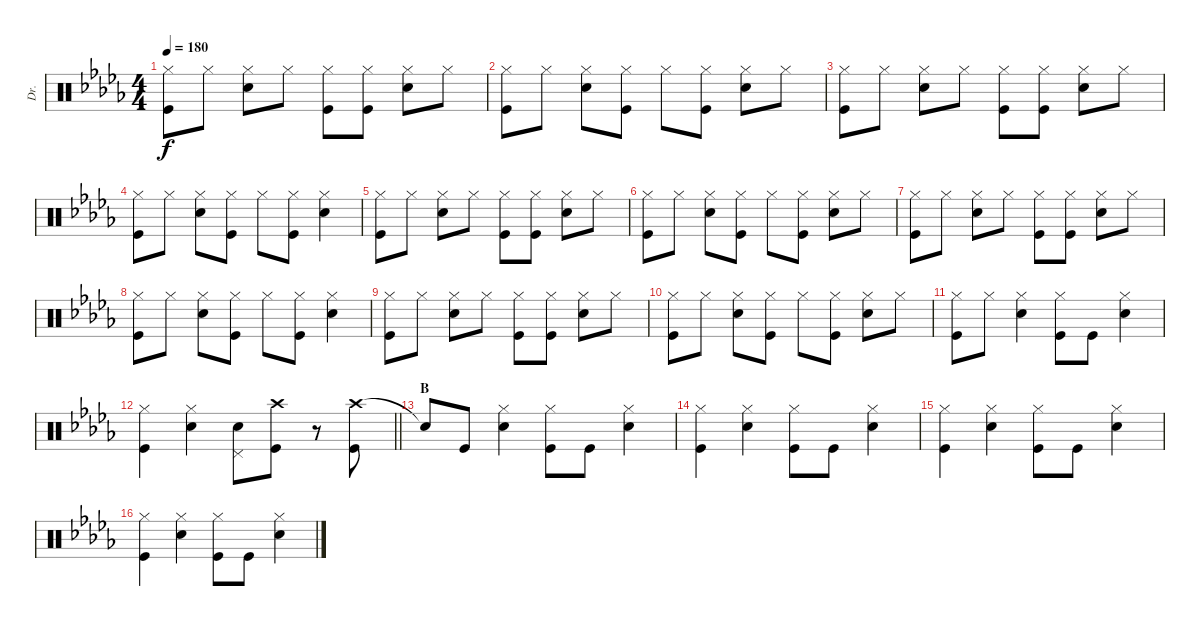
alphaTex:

\track ("Dr." "Dr.") {instrument percussion}
\staff {score}
\articulation defaults
\ts (4 4)
\tempo 180
\clef neutral
\ks db
("Hi-Hat (closed)" "Kick (hit)").8{dy f} "Hi-Hat (closed)".8 ("Hi-Hat (closed)" "Snare (hit) 2").8 "Hi-Hat (closed)".8 ("Hi-Hat (closed)" "Kick (hit)").8 ("Hi-Hat (closed)" "Kick (hit)").8 ("Hi-Hat (closed)" "Snare (hit) 2").8 "Hi-Hat (closed)".8 |
("Hi-Hat (closed)" "Kick (hit)").8 "Hi-Hat (closed)".8 ("Hi-Hat (closed)" "Snare (hit) 2").8 ("Hi-Hat (closed)" "Kick (hit)").8 "Hi-Hat (closed)".8 ("Hi-Hat (closed)" "Kick (hit)").8 ("Hi-Hat (closed)" "Snare (hit) 2").8 "Hi-Hat (closed)".8 |
("Hi-Hat (closed)" "Kick (hit)").8 "Hi-Hat (closed)".8 ("Hi-Hat (closed)" "Snare (hit) 2").8 "Hi-Hat (closed)".8 ("Hi-Hat (closed)" "Kick (hit)").8 ("Hi-Hat (closed)" "Kick (hit)").8 ("Hi-Hat (closed)" "Snare (hit) 2").8 "Hi-Hat (closed)".8 |
("Hi-Hat (closed)" "Kick (hit)").8 "Hi-Hat (closed)".8 ("Hi-Hat (closed)" "Snare (hit) 2").8 ("Hi-Hat (closed)" "Kick (hit)").8 "Hi-Hat (closed)".8 ("Hi-Hat (closed)" "Kick (hit)").8 ("Hi-Hat (closed)" "Snare (hit) 2").4 |
("Hi-Hat (closed)" "Kick (hit)").8 "Hi-Hat (closed)".8 ("Hi-Hat (closed)" "Snare (hit) 2").8 "Hi-Hat (closed)".8 ("Hi-Hat (closed)" "Kick (hit)").8 ("Hi-Hat (closed)" "Kick (hit)").8 ("Hi-Hat (closed)" "Snare (hit) 2").8 "Hi-Hat (closed)".8 |
("Hi-Hat (closed)" "Kick (hit)").8 "Hi-Hat (closed)".8 ("Hi-Hat (closed)" "Snare (hit) 2").8 ("Hi-Hat (closed)" "Kick (hit)").8 "Hi-Hat (closed)".8 ("Hi-Hat (closed)" "Kick (hit)").8 ("Hi-Hat (closed)" "Snare (hit) 2").8 "Hi-Hat (closed)".8 |
("Hi-Hat (closed)" "Kick (hit)").8 "Hi-Hat (closed)".8 ("Hi-Hat (closed)" "Snare (hit) 2").8 "Hi-Hat (closed)".8 ("Hi-Hat (closed)" "Kick (hit)").8 ("Hi-Hat (closed)" "Kick (hit)").8 ("Hi-Hat (closed)" "Snare (hit) 2").8 "Hi-Hat (closed)".8 |
("Hi-Hat (closed)" "Kick (hit)").8 "Hi-Hat (closed)".8 ("Hi-Hat (closed)" "Snare (hit) 2").8 ("Hi-Hat (closed)" "Kick (hit)").8 "Hi-Hat (closed)".8 ("Hi-Hat (closed)" "Kick (hit)").8 ("Hi-Hat (closed)" "Snare (hit) 2").4 |
("Hi-Hat (closed)" "Kick (hit)").8 "Hi-Hat (closed)".8 ("Hi-Hat (closed)" "Snare (hit) 2").8 "Hi-Hat (closed)".8 ("Hi-Hat (closed)" "Kick (hit)").8 ("Hi-Hat (closed)" "Kick (hit)").8 ("Hi-Hat (closed)" "Snare (hit) 2").8 "Hi-Hat (closed)".8 |
("Hi-Hat (closed)" "Kick (hit)").8 "Hi-Hat (closed)".8 ("Hi-Hat (closed)" "Snare (hit) 2").8 ("Hi-Hat (closed)" "Kick (hit)").8 "Hi-Hat (closed)".8 ("Hi-Hat (closed)" "Kick (hit)").8 ("Hi-Hat (closed)" "Snare (hit) 2").8 "Hi-Hat (closed)".8 |
("Hi-Hat (closed)" "Kick (hit)").8 "Hi-Hat (closed)".8 ("Hi-Hat (closed)" "Snare (hit) 2").4 ("Hi-Hat (closed)" "Kick (hit)").8 "Kick (hit)".8 ("Hi-Hat (closed)" "Snare (hit) 2").4 |
\barLineRight lightlight
("Hi-Hat (closed)" "Kick (hit)").4 ("Hi-Hat (closed)" "Snare (hit) 2").4 ("Snare (hit) 2" "Pedal Hi-Hat (hit)").8 ("Crash high (hit)" "Kick (hit)").8 r.8 ("Crash high (hit)" "Kick (hit)").8 |
\section ("" "B")
"Snare (hit)"{t}.8 "Kick (hit)".8 ("Hi-Hat (closed)" "Snare (hit) 2").4 ("Hi-Hat (closed)" "Kick (hit)").8 "Kick (hit)".8 ("Hi-Hat (closed)" "Snare (hit) 2").4 |
("Hi-Hat (closed)" "Kick (hit)").4 ("Hi-Hat (closed)" "Snare (hit) 2").4 ("Hi-Hat (closed)" "Kick (hit)").8 "Kick (hit)".8 ("Hi-Hat (closed)" "Snare (hit) 2").4 |
("Hi-Hat (closed)" "Kick (hit)").4 ("Hi-Hat (closed)" "Snare (hit) 2").4 ("Hi-Hat (closed)" "Kick (hit)").8 "Kick (hit)".8 ("Hi-Hat (closed)" "Snare (hit) 2").4 |
("Hi-Hat (closed)" "Kick (hit)").4 ("Hi-Hat (closed)" "Snare (hit) 2").4 ("Hi-Hat (closed)" "Kick (hit)").8 "Kick (hit)".8 ("Hi-Hat (closed)" "Snare (hit) 2").4
